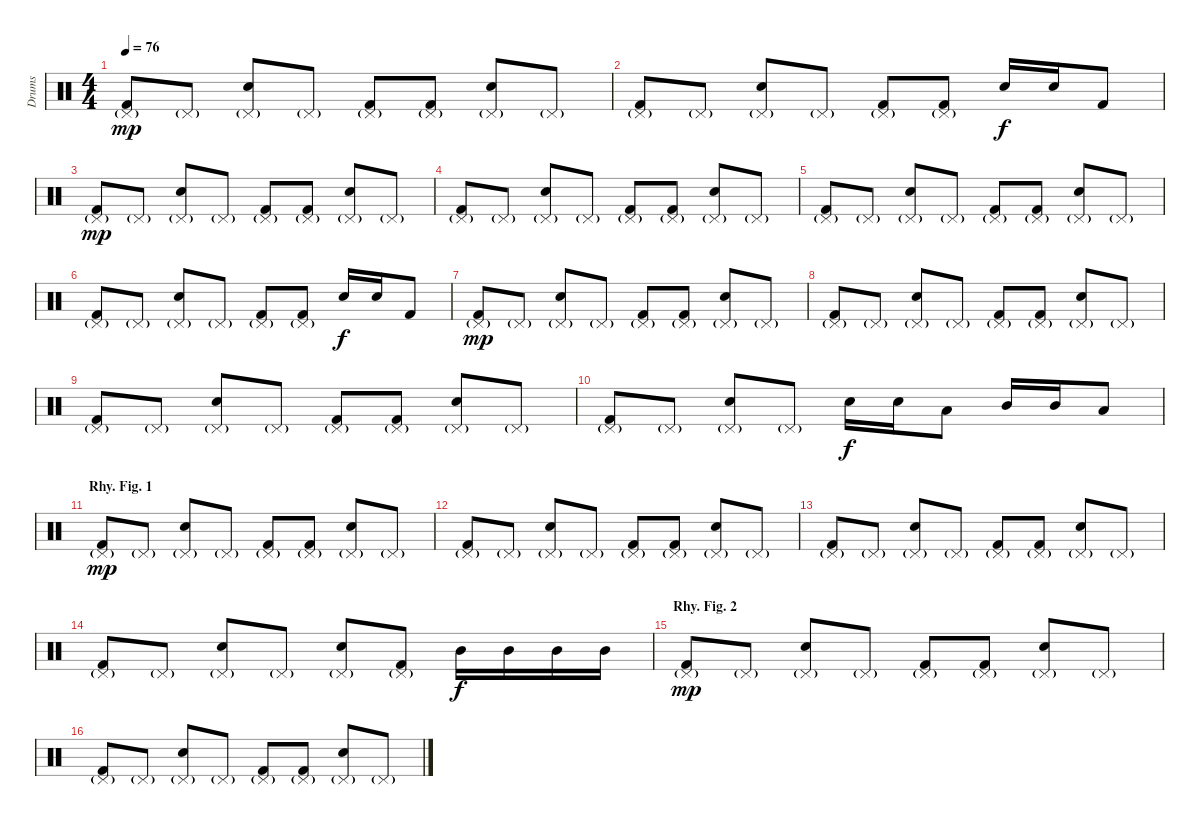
\track ("Drums" "Drums") {instrument percussion}
\staff {score}
\articulation defaults
\ts (4 4)
\tempo 76
\clef neutral
\ks c
("Pedal Hi-Hat (hit)"{g} "Kick (hit) 2").8{dy mp} "Pedal Hi-Hat (hit)"{g}.8 ("Pedal Hi-Hat (hit)"{g} "Snare (hit) 2").8 "Pedal Hi-Hat (hit)"{g}.8 ("Pedal Hi-Hat (hit)"{g} "Kick (hit) 2").8 ("Pedal Hi-Hat (hit)"{g} "Kick (hit) 2").8 ("Pedal Hi-Hat (hit)"{g} "Snare (hit) 2").8 "Pedal Hi-Hat (hit)"{g}.8 |
("Pedal Hi-Hat (hit)"{g} "Kick (hit) 2").8 "Pedal Hi-Hat (hit)"{g}.8 ("Pedal Hi-Hat (hit)"{g} "Snare (hit) 2").8 "Pedal Hi-Hat (hit)"{g}.8 ("Pedal Hi-Hat (hit)"{g} "Kick (hit) 2").8 ("Pedal Hi-Hat (hit)"{g} "Kick (hit) 2").8 "Snare (hit) 2".16{dy f} "Snare (hit) 2".16 "Kick (hit) 2".8 |
("Pedal Hi-Hat (hit)"{g} "Kick (hit) 2").8{dy mp} "Pedal Hi-Hat (hit)"{g}.8 ("Pedal Hi-Hat (hit)"{g} "Snare (hit) 2").8 "Pedal Hi-Hat (hit)"{g}.8 ("Pedal Hi-Hat (hit)"{g} "Kick (hit) 2").8 ("Pedal Hi-Hat (hit)"{g} "Kick (hit) 2").8 ("Pedal Hi-Hat (hit)"{g} "Snare (hit) 2").8 "Pedal Hi-Hat (hit)"{g}.8 |
("Pedal Hi-Hat (hit)"{g} "Kick (hit) 2").8 "Pedal Hi-Hat (hit)"{g}.8 ("Pedal Hi-Hat (hit)"{g} "Snare (hit) 2").8 "Pedal Hi-Hat (hit)"{g}.8 ("Pedal Hi-Hat (hit)"{g} "Kick (hit) 2").8 ("Pedal Hi-Hat (hit)"{g} "Kick (hit) 2").8 ("Pedal Hi-Hat (hit)"{g} "Snare (hit) 2").8 "Pedal Hi-Hat (hit)"{g}.8 |
("Pedal Hi-Hat (hit)"{g} "Kick (hit) 2").8 "Pedal Hi-Hat (hit)"{g}.8 ("Pedal Hi-Hat (hit)"{g} "Snare (hit) 2").8 "Pedal Hi-Hat (hit)"{g}.8 ("Pedal Hi-Hat (hit)"{g} "Kick (hit) 2").8 ("Pedal Hi-Hat (hit)"{g} "Kick (hit) 2").8 ("Pedal Hi-Hat (hit)"{g} "Snare (hit) 2").8 "Pedal Hi-Hat (hit)"{g}.8 |
("Pedal Hi-Hat (hit)"{g} "Kick (hit) 2").8 "Pedal Hi-Hat (hit)"{g}.8 ("Pedal Hi-Hat (hit)"{g} "Snare (hit) 2").8 "Pedal Hi-Hat (hit)"{g}.8 ("Pedal Hi-Hat (hit)"{g} "Kick (hit) 2").8 ("Pedal Hi-Hat (hit)"{g} "Kick (hit) 2").8 "Snare (hit) 2".16{dy f} "Snare (hit) 2".16 "Kick (hit) 2".8 |
("Pedal Hi-Hat (hit)"{g} "Kick (hit) 2").8{dy mp} "Pedal Hi-Hat (hit)"{g}.8 ("Pedal Hi-Hat (hit)"{g} "Snare (hit) 2").8 "Pedal Hi-Hat (hit)"{g}.8 ("Pedal Hi-Hat (hit)"{g} "Kick (hit) 2").8 ("Pedal Hi-Hat (hit)"{g} "Kick (hit) 2").8 ("Pedal Hi-Hat (hit)"{g} "Snare (hit) 2").8 "Pedal Hi-Hat (hit)"{g}.8 |
("Pedal Hi-Hat (hit)"{g} "Kick (hit) 2").8 "Pedal Hi-Hat (hit)"{g}.8 ("Pedal Hi-Hat (hit)"{g} "Snare (hit) 2").8 "Pedal Hi-Hat (hit)"{g}.8 ("Pedal Hi-Hat (hit)"{g} "Kick (hit) 2").8 ("Pedal Hi-Hat (hit)"{g} "Kick (hit) 2").8 ("Pedal Hi-Hat (hit)"{g} "Snare (hit) 2").8 "Pedal Hi-Hat (hit)"{g}.8 |
("Pedal Hi-Hat (hit)"{g} "Kick (hit) 2").8 "Pedal Hi-Hat (hit)"{g}.8 ("Pedal Hi-Hat (hit)"{g} "Snare (hit) 2").8 "Pedal Hi-Hat (hit)"{g}.8 ("Pedal Hi-Hat (hit)"{g} "Kick (hit) 2").8 ("Pedal Hi-Hat (hit)"{g} "Kick (hit) 2").8 ("Pedal Hi-Hat (hit)"{g} "Snare (hit) 2").8 "Pedal Hi-Hat (hit)"{g}.8 |
("Pedal Hi-Hat (hit)"{g} "Kick (hit) 2").8 "Pedal Hi-Hat (hit)"{g}.8 ("Pedal Hi-Hat (hit)"{g} "Snare (hit) 2").8 "Pedal Hi-Hat (hit)"{g}.8 "Snare (hit) 2".16{dy f} "Snare (hit) 2".16 "Low Tom (hit)".8 "Mid Tom (hit)".16 "Mid Tom (hit)".16 "Low Tom (hit)".8 |
\section ("" "Rhy. Fig. 1")
("Pedal Hi-Hat (hit)"{g} "Kick (hit) 2").8{dy mp} "Pedal Hi-Hat (hit)"{g}.8 ("Pedal Hi-Hat (hit)"{g} "Snare (hit) 2").8 "Pedal Hi-Hat (hit)"{g}.8 ("Pedal Hi-Hat (hit)"{g} "Kick (hit) 2").8 ("Pedal Hi-Hat (hit)"{g} "Kick (hit) 2").8 ("Pedal Hi-Hat (hit)"{g} "Snare (hit) 2").8 "Pedal Hi-Hat (hit)"{g}.8 |
("Pedal Hi-Hat (hit)"{g} "Kick (hit) 2").8 "Pedal Hi-Hat (hit)"{g}.8 ("Pedal Hi-Hat (hit)"{g} "Snare (hit) 2").8 "Pedal Hi-Hat (hit)"{g}.8 ("Pedal Hi-Hat (hit)"{g} "Kick (hit) 2").8 ("Pedal Hi-Hat (hit)"{g} "Kick (hit) 2").8 ("Pedal Hi-Hat (hit)"{g} "Snare (hit) 2").8 "Pedal Hi-Hat (hit)"{g}.8 |
("Pedal Hi-Hat (hit)"{g} "Kick (hit) 2").8 "Pedal Hi-Hat (hit)"{g}.8 ("Pedal Hi-Hat (hit)"{g} "Snare (hit) 2").8 "Pedal Hi-Hat (hit)"{g}.8 ("Pedal Hi-Hat (hit)"{g} "Kick (hit) 2").8 ("Pedal Hi-Hat (hit)"{g} "Kick (hit) 2").8 ("Pedal Hi-Hat (hit)"{g} "Snare (hit) 2").8 "Pedal Hi-Hat (hit)"{g}.8 |
("Pedal Hi-Hat (hit)"{g} "Kick (hit) 2").8 "Pedal Hi-Hat (hit)"{g}.8 ("Pedal Hi-Hat (hit)"{g} "Snare (hit) 2").8 "Pedal Hi-Hat (hit)"{g}.8 ("Pedal Hi-Hat (hit)"{g} "Snare (hit) 2").8 ("Pedal Hi-Hat (hit)"{g} "Kick (hit) 2").8 "Mid Tom (hit)".16{dy f} "Mid Tom (hit)".16 "Mid Tom (hit)".16 "Mid Tom (hit)".16 |
\section ("" "Rhy. Fig. 2")
("Pedal Hi-Hat (hit)"{g} "Kick (hit) 2").8{dy mp} "Pedal Hi-Hat (hit)"{g}.8 ("Pedal Hi-Hat (hit)"{g} "Snare (hit) 2").8 "Pedal Hi-Hat (hit)"{g}.8 ("Pedal Hi-Hat (hit)"{g} "Kick (hit) 2").8 ("Pedal Hi-Hat (hit)"{g} "Kick (hit) 2").8 ("Pedal Hi-Hat (hit)"{g} "Snare (hit) 2").8 "Pedal Hi-Hat (hit)"{g}.8 |
("Pedal Hi-Hat (hit)"{g} "Kick (hit) 2").8 "Pedal Hi-Hat (hit)"{g}.8 ("Pedal Hi-Hat (hit)"{g} "Snare (hit) 2").8 "Pedal Hi-Hat (hit)"{g}.8 ("Pedal Hi-Hat (hit)"{g} "Kick (hit) 2").8 ("Pedal Hi-Hat (hit)"{g} "Kick (hit) 2").8 ("Pedal Hi-Hat (hit)"{g} "Snare (hit) 2").8 "Pedal Hi-Hat (hit)"{g}.8
